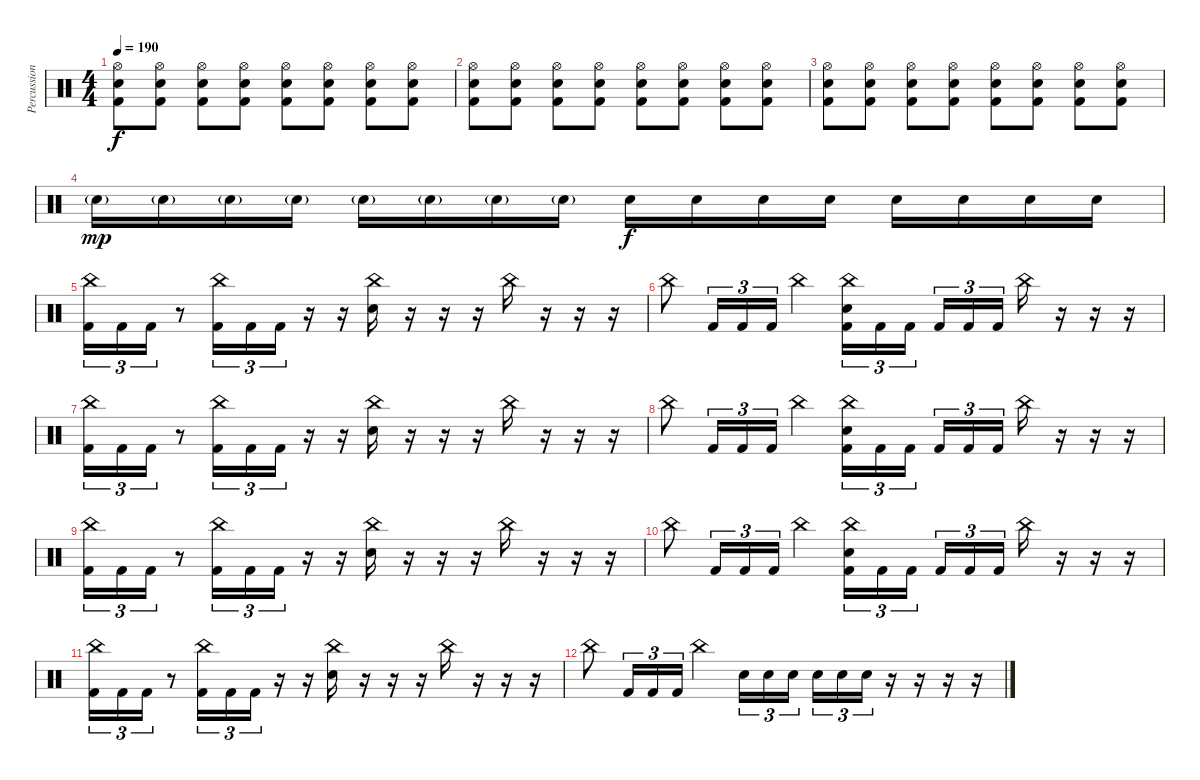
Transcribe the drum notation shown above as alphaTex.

\track ("Percussion" "Percussion") {instrument percussion}
\staff {score}
\articulation defaults
\ts (4 4)
\tempo 190
\clef neutral
\ks c
("Hi-Hat (open)" "Snare (hit) 2" "Kick (hit) 2").8{dy f} ("Hi-Hat (open)" "Snare (hit) 2" "Kick (hit) 2").8 ("Hi-Hat (open)" "Snare (hit) 2" "Kick (hit) 2").8 ("Hi-Hat (open)" "Snare (hit) 2" "Kick (hit) 2").8 ("Hi-Hat (open)" "Snare (hit) 2" "Kick (hit) 2").8 ("Hi-Hat (open)" "Snare (hit) 2" "Kick (hit) 2").8 ("Hi-Hat (open)" "Snare (hit) 2" "Kick (hit) 2").8 ("Hi-Hat (open)" "Snare (hit) 2" "Kick (hit) 2").8 |
("Hi-Hat (open)" "Snare (hit) 2" "Kick (hit) 2").8 ("Hi-Hat (open)" "Snare (hit) 2" "Kick (hit) 2").8 ("Hi-Hat (open)" "Snare (hit) 2" "Kick (hit) 2").8 ("Hi-Hat (open)" "Snare (hit) 2" "Kick (hit) 2").8 ("Hi-Hat (open)" "Snare (hit) 2" "Kick (hit) 2").8 ("Hi-Hat (open)" "Snare (hit) 2" "Kick (hit) 2").8 ("Hi-Hat (open)" "Snare (hit) 2" "Kick (hit) 2").8 ("Hi-Hat (open)" "Snare (hit) 2" "Kick (hit) 2").8 |
("Hi-Hat (open)" "Snare (hit) 2" "Kick (hit) 2").8 ("Hi-Hat (open)" "Snare (hit) 2" "Kick (hit) 2").8 ("Hi-Hat (open)" "Snare (hit) 2" "Kick (hit) 2").8 ("Hi-Hat (open)" "Snare (hit) 2" "Kick (hit) 2").8 ("Hi-Hat (open)" "Snare (hit) 2" "Kick (hit) 2").8 ("Hi-Hat (open)" "Snare (hit) 2" "Kick (hit) 2").8 ("Hi-Hat (open)" "Snare (hit) 2" "Kick (hit) 2").8 ("Hi-Hat (open)" "Snare (hit) 2" "Kick (hit) 2").8 |
"Snare (hit) 2"{g}.16{dy mp} "Snare (hit) 2"{g}.16 "Snare (hit) 2"{g}.16 "Snare (hit) 2"{g}.16 "Snare (hit) 2"{g}.16 "Snare (hit) 2"{g}.16 "Snare (hit) 2"{g}.16 "Snare (hit) 2"{g}.16 "Snare (hit) 2".16{dy f} "Snare (hit) 2".16 "Snare (hit) 2".16 "Snare (hit) 2".16 "Snare (hit) 2".16 "Snare (hit) 2".16 "Snare (hit) 2".16 "Snare (hit) 2".16 |
("China (hit)" "Kick (hit) 2").16{tu (3 2)} "Kick (hit) 2".16{tu (3 2)} "Kick (hit) 2".16{tu (3 2)} r.8 ("China (hit)" "Kick (hit) 2").16{tu (3 2)} "Kick (hit) 2".16{tu (3 2)} "Kick (hit) 2".16{tu (3 2)} r.16 r.16 ("China (hit)" "Snare (hit) 2").16 r.16 r.16 r.16 "China (hit)".16 r.16 r.16 r.16 |
"China (hit)".8 "Kick (hit) 2".16{tu (3 2)} "Kick (hit) 2".16{tu (3 2)} "Kick (hit) 2".16{tu (3 2)} "China (hit)".4 ("China (hit)" "Snare (hit) 2" "Kick (hit) 2").16{tu (3 2)} "Kick (hit) 2".16{tu (3 2)} "Kick (hit) 2".16{tu (3 2) beam splitsecondary} "Kick (hit) 2".16{tu (3 2)} "Kick (hit) 2".16{tu (3 2)} "Kick (hit) 2".16{tu (3 2)} "China (hit)".16 r.16 r.16 r.16 |
("China (hit)" "Kick (hit) 2").16{tu (3 2)} "Kick (hit) 2".16{tu (3 2)} "Kick (hit) 2".16{tu (3 2)} r.8 ("China (hit)" "Kick (hit) 2").16{tu (3 2)} "Kick (hit) 2".16{tu (3 2)} "Kick (hit) 2".16{tu (3 2)} r.16 r.16 ("China (hit)" "Snare (hit) 2").16 r.16 r.16 r.16 "China (hit)".16 r.16 r.16 r.16 |
"China (hit)".8 "Kick (hit) 2".16{tu (3 2)} "Kick (hit) 2".16{tu (3 2)} "Kick (hit) 2".16{tu (3 2)} "China (hit)".4 ("China (hit)" "Snare (hit) 2" "Kick (hit) 2").16{tu (3 2)} "Kick (hit) 2".16{tu (3 2)} "Kick (hit) 2".16{tu (3 2) beam splitsecondary} "Kick (hit) 2".16{tu (3 2)} "Kick (hit) 2".16{tu (3 2)} "Kick (hit) 2".16{tu (3 2)} "China (hit)".16 r.16 r.16 r.16 |
("China (hit)" "Kick (hit) 2").16{tu (3 2)} "Kick (hit) 2".16{tu (3 2)} "Kick (hit) 2".16{tu (3 2)} r.8 ("China (hit)" "Kick (hit) 2").16{tu (3 2)} "Kick (hit) 2".16{tu (3 2)} "Kick (hit) 2".16{tu (3 2)} r.16 r.16 ("China (hit)" "Snare (hit) 2").16 r.16 r.16 r.16 "China (hit)".16 r.16 r.16 r.16 |
"China (hit)".8 "Kick (hit) 2".16{tu (3 2)} "Kick (hit) 2".16{tu (3 2)} "Kick (hit) 2".16{tu (3 2)} "China (hit)".4 ("China (hit)" "Snare (hit) 2" "Kick (hit) 2").16{tu (3 2)} "Kick (hit) 2".16{tu (3 2)} "Kick (hit) 2".16{tu (3 2) beam splitsecondary} "Kick (hit) 2".16{tu (3 2)} "Kick (hit) 2".16{tu (3 2)} "Kick (hit) 2".16{tu (3 2)} "China (hit)".16 r.16 r.16 r.16 |
("China (hit)" "Kick (hit) 2").16{tu (3 2)} "Kick (hit) 2".16{tu (3 2)} "Kick (hit) 2".16{tu (3 2)} r.8 ("China (hit)" "Kick (hit) 2").16{tu (3 2)} "Kick (hit) 2".16{tu (3 2)} "Kick (hit) 2".16{tu (3 2)} r.16 r.16 ("China (hit)" "Snare (hit) 2").16 r.16 r.16 r.16 "China (hit)".16 r.16 r.16 r.16 |
"China (hit)".8 "Kick (hit) 2".16{tu (3 2)} "Kick (hit) 2".16{tu (3 2)} "Kick (hit) 2".16{tu (3 2)} "China (hit)".4 "Snare (hit) 2".16{tu (3 2)} "Snare (hit) 2".16{tu (3 2)} "Snare (hit) 2".16{tu (3 2) beam splitsecondary} "Snare (hit) 2".16{tu (3 2)} "Snare (hit) 2".16{tu (3 2)} "Snare (hit) 2".16{tu (3 2)} r.16 r.16 r.16 r.16
